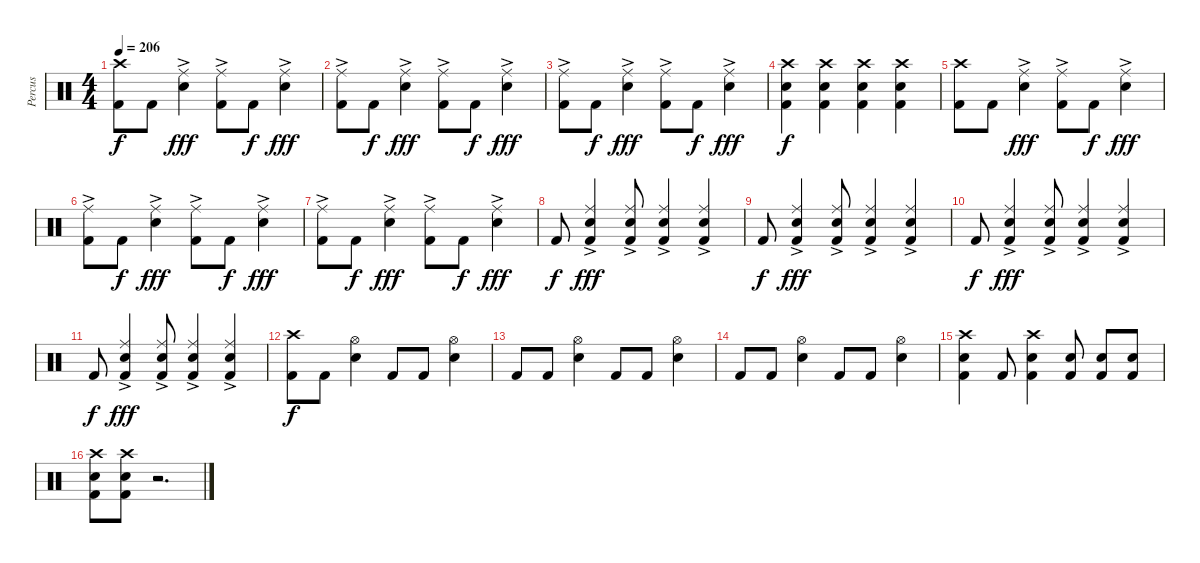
\track ("Percus" "Percus") {instrument percussion}
\staff {score}
\articulation defaults
\ts (4 4)
\tempo 206
\clef neutral
\ks c
("Crash high (hit)" "Kick (hit) 2").8{dy f} "Kick (hit) 2".8 ("Ride (middle)"{ac} "Snare (hit) 2").4{dy fff} ("Ride (middle)"{ac} "Kick (hit) 2").8 "Kick (hit) 2".8{dy f} ("Ride (middle)"{ac} "Snare (hit) 2").4{dy fff} |
("Ride (middle)"{ac} "Kick (hit) 2").8 "Kick (hit) 2".8{dy f} ("Ride (middle)"{ac} "Snare (hit) 2").4{dy fff} ("Ride (middle)"{ac} "Kick (hit) 2").8 "Kick (hit) 2".8{dy f} ("Ride (middle)"{ac} "Snare (hit) 2").4{dy fff} |
("Ride (middle)"{ac} "Kick (hit) 2").8 "Kick (hit) 2".8{dy f} ("Ride (middle)"{ac} "Snare (hit) 2").4{dy fff} ("Ride (middle)"{ac} "Kick (hit) 2").8 "Kick (hit) 2".8{dy f} ("Ride (middle)"{ac} "Snare (hit) 2").4{dy fff} |
("Crash high (hit)" "Snare (hit) 2" "Kick (hit) 2").4{dy f} ("Crash high (hit)" "Snare (hit) 2" "Kick (hit) 2").4 ("Crash high (hit)" "Snare (hit) 2" "Kick (hit) 2").4 ("Crash high (hit)" "Snare (hit) 2" "Kick (hit) 2").4 |
("Crash high (hit)" "Kick (hit) 2").8 "Kick (hit) 2".8 ("Ride (middle)"{ac} "Snare (hit) 2").4{dy fff} ("Ride (middle)"{ac} "Kick (hit) 2").8 "Kick (hit) 2".8{dy f} ("Ride (middle)"{ac} "Snare (hit) 2").4{dy fff} |
("Ride (middle)"{ac} "Kick (hit) 2").8 "Kick (hit) 2".8{dy f} ("Ride (middle)"{ac} "Snare (hit) 2").4{dy fff} ("Ride (middle)"{ac} "Kick (hit) 2").8 "Kick (hit) 2".8{dy f} ("Ride (middle)"{ac} "Snare (hit) 2").4{dy fff} |
("Ride (middle)"{ac} "Kick (hit) 2").8 "Kick (hit) 2".8{dy f} ("Ride (middle)"{ac} "Snare (hit) 2").4{dy fff} ("Ride (middle)"{ac} "Kick (hit) 2").8 "Kick (hit) 2".8{dy f} ("Ride (middle)"{ac} "Snare (hit) 2").4{dy fff} |
"Kick (hit) 2".8{dy f} ("Ride (middle)"{ac} "Snare (hit) 2" "Kick (hit) 2").4{dy fff} ("Ride (middle)"{ac} "Snare (hit) 2" "Kick (hit) 2").8 ("Ride (middle)"{ac} "Snare (hit) 2" "Kick (hit) 2").4 ("Ride (middle)"{ac} "Snare (hit) 2" "Kick (hit) 2").4 |
"Kick (hit) 2".8{dy f} ("Ride (middle)"{ac} "Snare (hit) 2" "Kick (hit) 2").4{dy fff} ("Ride (middle)"{ac} "Snare (hit) 2" "Kick (hit) 2").8 ("Ride (middle)"{ac} "Snare (hit) 2" "Kick (hit) 2").4 ("Ride (middle)"{ac} "Snare (hit) 2" "Kick (hit) 2").4 |
"Kick (hit) 2".8{dy f} ("Ride (middle)"{ac} "Snare (hit) 2" "Kick (hit) 2").4{dy fff} ("Ride (middle)"{ac} "Snare (hit) 2" "Kick (hit) 2").8 ("Ride (middle)"{ac} "Snare (hit) 2" "Kick (hit) 2").4 ("Ride (middle)"{ac} "Snare (hit) 2" "Kick (hit) 2").4 |
"Kick (hit) 2".8{dy f} ("Ride (middle)"{ac} "Snare (hit) 2" "Kick (hit) 2").4{dy fff} ("Ride (middle)"{ac} "Snare (hit) 2" "Kick (hit) 2").8 ("Ride (middle)"{ac} "Snare (hit) 2" "Kick (hit) 2").4 ("Ride (middle)"{ac} "Snare (hit) 2" "Kick (hit) 2").4 |
("Crash high (hit)" "Kick (hit) 2").8{dy f} "Kick (hit) 2".8 ("Hi-Hat (open)" "Snare (hit) 2").4 "Kick (hit) 2".8 "Kick (hit) 2".8 ("Hi-Hat (open)" "Snare (hit) 2").4 |
"Kick (hit) 2".8 "Kick (hit) 2".8 ("Hi-Hat (open)" "Snare (hit) 2").4 "Kick (hit) 2".8 "Kick (hit) 2".8 ("Hi-Hat (open)" "Snare (hit) 2").4 |
"Kick (hit) 2".8 "Kick (hit) 2".8 ("Hi-Hat (open)" "Snare (hit) 2").4 "Kick (hit) 2".8 "Kick (hit) 2".8 ("Hi-Hat (open)" "Snare (hit) 2").4 |
("Crash high (hit)" "Snare (hit) 2" "Kick (hit) 2").4 "Kick (hit) 2".8 ("Crash high (hit)" "Snare (hit) 2" "Kick (hit) 2").4 ("Snare (hit) 2" "Kick (hit) 2").8 ("Snare (hit) 2" "Kick (hit) 2").8 ("Snare (hit) 2" "Kick (hit) 2").8 |
("Crash high (hit)" "Snare (hit) 2" "Kick (hit) 2").8 ("Crash high (hit)" "Snare (hit) 2" "Kick (hit) 2").8 r.2{d}
